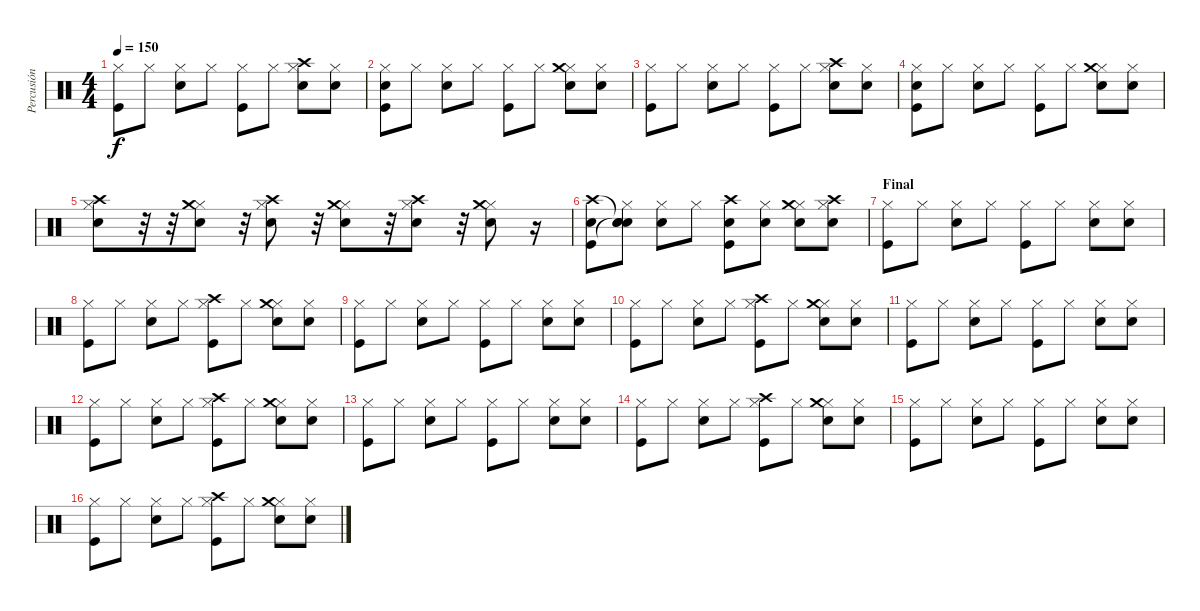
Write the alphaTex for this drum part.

\track ("Percusión" "Percusión") {instrument percussion}
\staff {score}
\articulation defaults
\ts (4 4)
\tempo 150
\clef neutral
\ks c
("Hi-Hat (closed)" "Kick (hit)").8{dy f} "Hi-Hat (closed)".8 ("Hi-Hat (closed)" "Snare (hit) 2").8 "Hi-Hat (closed)".8 ("Hi-Hat (closed)" "Kick (hit)").8 "Hi-Hat (closed)".8 ("Hi-Hat (closed)" "Snare (hit) 2" "Crash high (hit)").8 ("Hi-Hat (closed)" "Snare (hit) 2").8 |
("Hi-Hat (closed)" "Snare (hit) 2" "Kick (hit)").8 "Hi-Hat (closed)".8 ("Hi-Hat (closed)" "Snare (hit) 2").8 "Hi-Hat (closed)".8 ("Hi-Hat (closed)" "Kick (hit)").8 "Hi-Hat (closed)".8 ("Hi-Hat (closed)" "Snare (hit) 2" "Crash medium (hit)").8 ("Hi-Hat (closed)" "Snare (hit) 2").8 |
("Hi-Hat (closed)" "Kick (hit)").8 "Hi-Hat (closed)".8 ("Hi-Hat (closed)" "Snare (hit) 2").8 "Hi-Hat (closed)".8 ("Hi-Hat (closed)" "Kick (hit)").8 "Hi-Hat (closed)".8 ("Hi-Hat (closed)" "Snare (hit) 2" "Crash high (hit)").8 ("Hi-Hat (closed)" "Snare (hit) 2").8 |
("Hi-Hat (closed)" "Snare (hit) 2" "Kick (hit)").8 "Hi-Hat (closed)".8 ("Hi-Hat (closed)" "Snare (hit) 2").8 "Hi-Hat (closed)".8 ("Hi-Hat (closed)" "Kick (hit)").8 "Hi-Hat (closed)".8 ("Hi-Hat (closed)" "Snare (hit) 2" "Crash medium (hit)").8 ("Hi-Hat (closed)" "Snare (hit) 2").8 |
("Hi-Hat (closed)" "Snare (hit) 2" "Crash high (hit)").8 r.32 r.32 ("Hi-Hat (closed)" "Snare (hit) 2" "Crash medium (hit)").8 r.32 ("Hi-Hat (closed)" "Snare (hit) 2" "Crash high (hit)").8 r.32 ("Hi-Hat (closed)" "Snare (hit) 2" "Crash medium (hit)").8 r.32 ("Hi-Hat (closed)" "Snare (hit) 2" "Crash high (hit)").8 r.32 ("Hi-Hat (closed)" "Snare (hit) 2" "Crash medium (hit)").8 r.16 |
("Snare (hit) 2" "Kick (hit)" "Crash high (hit)").8 ("Hi-Hat (closed)" "Snare (hit)"{t} "Snare (hit)"{t} "Snare (hit)").8 ("Hi-Hat (closed)" "Snare (hit) 2").8 "Hi-Hat (closed)".8 ("Snare (hit) 2" "Kick (hit)" "Crash high (hit)").8 ("Hi-Hat (closed)" "Snare (hit) 2").8 ("Hi-Hat (closed)" "Snare (hit) 2" "Crash medium (hit)").8 ("Hi-Hat (closed)" "Snare (hit) 2" "Crash high (hit)").8 |
\section ("" "Final")
("Hi-Hat (closed)" "Kick (hit)").8 "Hi-Hat (closed)".8 ("Hi-Hat (closed)" "Snare (hit) 2").8 "Hi-Hat (closed)".8 ("Hi-Hat (closed)" "Kick (hit)").8 "Hi-Hat (closed)".8 ("Hi-Hat (closed)" "Snare (hit) 2").8 ("Hi-Hat (closed)" "Snare (hit) 2").8 |
("Hi-Hat (closed)" "Kick (hit)").8 "Hi-Hat (closed)".8 ("Hi-Hat (closed)" "Snare (hit) 2").8 "Hi-Hat (closed)".8 ("Hi-Hat (closed)" "Kick (hit)" "Crash high (hit)").8 "Hi-Hat (closed)".8 ("Hi-Hat (closed)" "Snare (hit) 2" "Crash medium (hit)").8 ("Hi-Hat (closed)" "Snare (hit) 2").8 |
("Hi-Hat (closed)" "Kick (hit)").8 "Hi-Hat (closed)".8 ("Hi-Hat (closed)" "Snare (hit) 2").8 "Hi-Hat (closed)".8 ("Hi-Hat (closed)" "Kick (hit)").8 "Hi-Hat (closed)".8 ("Hi-Hat (closed)" "Snare (hit) 2").8 ("Hi-Hat (closed)" "Snare (hit) 2").8 |
("Hi-Hat (closed)" "Kick (hit)").8 "Hi-Hat (closed)".8 ("Hi-Hat (closed)" "Snare (hit) 2").8 "Hi-Hat (closed)".8 ("Hi-Hat (closed)" "Kick (hit)" "Crash high (hit)").8 "Hi-Hat (closed)".8 ("Hi-Hat (closed)" "Snare (hit) 2" "Crash medium (hit)").8 ("Hi-Hat (closed)" "Snare (hit) 2").8 |
("Hi-Hat (closed)" "Kick (hit)").8 "Hi-Hat (closed)".8 ("Hi-Hat (closed)" "Snare (hit) 2").8 "Hi-Hat (closed)".8 ("Hi-Hat (closed)" "Kick (hit)").8 "Hi-Hat (closed)".8 ("Hi-Hat (closed)" "Snare (hit) 2").8 ("Hi-Hat (closed)" "Snare (hit) 2").8 |
("Hi-Hat (closed)" "Kick (hit)").8 "Hi-Hat (closed)".8 ("Hi-Hat (closed)" "Snare (hit) 2").8 "Hi-Hat (closed)".8 ("Hi-Hat (closed)" "Kick (hit)" "Crash high (hit)").8 "Hi-Hat (closed)".8 ("Hi-Hat (closed)" "Snare (hit) 2" "Crash medium (hit)").8 ("Hi-Hat (closed)" "Snare (hit) 2").8 |
("Hi-Hat (closed)" "Kick (hit)").8 "Hi-Hat (closed)".8 ("Hi-Hat (closed)" "Snare (hit) 2").8 "Hi-Hat (closed)".8 ("Hi-Hat (closed)" "Kick (hit)").8 "Hi-Hat (closed)".8 ("Hi-Hat (closed)" "Snare (hit) 2").8 ("Hi-Hat (closed)" "Snare (hit) 2").8 |
("Hi-Hat (closed)" "Kick (hit)").8 "Hi-Hat (closed)".8 ("Hi-Hat (closed)" "Snare (hit) 2").8 "Hi-Hat (closed)".8 ("Hi-Hat (closed)" "Kick (hit)" "Crash high (hit)").8 "Hi-Hat (closed)".8 ("Hi-Hat (closed)" "Snare (hit) 2" "Crash medium (hit)").8 ("Hi-Hat (closed)" "Snare (hit) 2").8 |
("Hi-Hat (closed)" "Kick (hit)").8 "Hi-Hat (closed)".8 ("Hi-Hat (closed)" "Snare (hit) 2").8 "Hi-Hat (closed)".8 ("Hi-Hat (closed)" "Kick (hit)").8 "Hi-Hat (closed)".8 ("Hi-Hat (closed)" "Snare (hit) 2").8 ("Hi-Hat (closed)" "Snare (hit) 2").8 |
("Hi-Hat (closed)" "Kick (hit)").8 "Hi-Hat (closed)".8 ("Hi-Hat (closed)" "Snare (hit) 2").8 "Hi-Hat (closed)".8 ("Hi-Hat (closed)" "Kick (hit)" "Crash high (hit)").8 "Hi-Hat (closed)".8 ("Hi-Hat (closed)" "Snare (hit) 2" "Crash medium (hit)").8 ("Hi-Hat (closed)" "Snare (hit) 2").8
